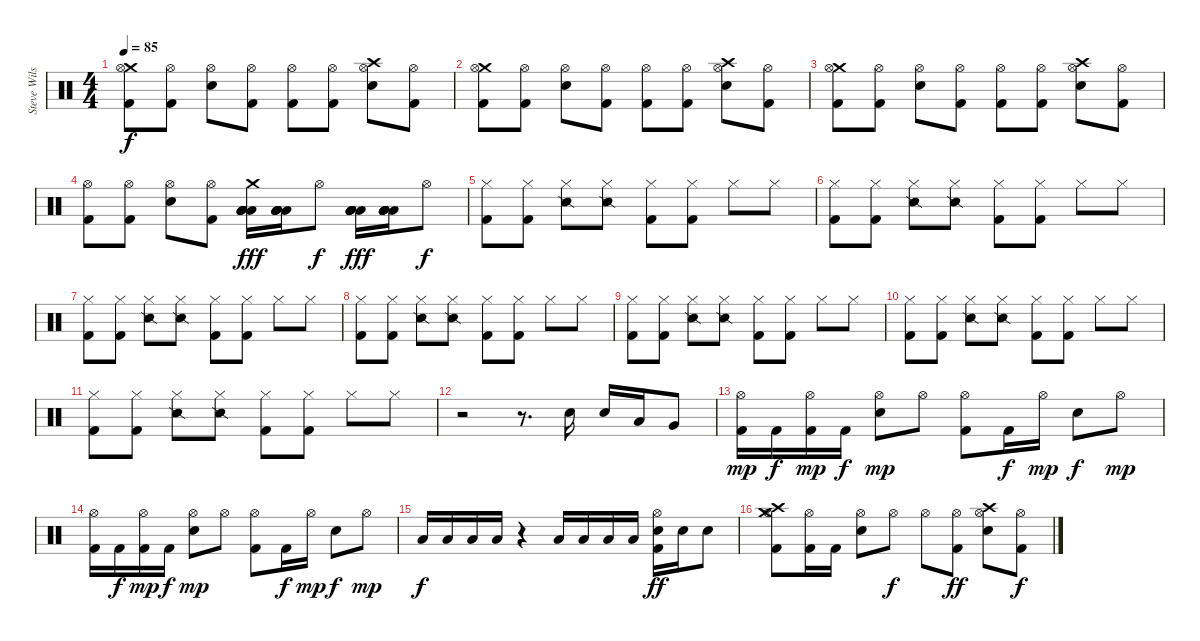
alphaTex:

\track ("Steve Wilson" "Steve Wils") {instrument percussion}
\staff {score}
\articulation defaults
\ts (4 4)
\tempo 85
\clef neutral
\ks c
("Crash medium (hit)" "Hi-Hat (open)" "Kick (hit) 2").8{dy f} ("Hi-Hat (open)" "Kick (hit) 2").8 ("Hi-Hat (open)" "Snare (hit) 2").8 ("Hi-Hat (open)" "Kick (hit) 2").8 ("Hi-Hat (open)" "Kick (hit) 2").8 ("Hi-Hat (open)" "Kick (hit) 2").8 ("Crash high (hit)" "Hi-Hat (open)" "Snare (hit) 2").8 ("Hi-Hat (open)" "Kick (hit) 2").8 |
("Crash medium (hit)" "Hi-Hat (open)" "Kick (hit) 2").8 ("Hi-Hat (open)" "Kick (hit) 2").8 ("Hi-Hat (open)" "Snare (hit) 2").8 ("Hi-Hat (open)" "Kick (hit) 2").8 ("Hi-Hat (open)" "Kick (hit) 2").8 ("Hi-Hat (open)" "Kick (hit) 2").8 ("Crash high (hit)" "Hi-Hat (open)" "Snare (hit) 2").8 ("Hi-Hat (open)" "Kick (hit) 2").8 |
("Crash medium (hit)" "Hi-Hat (open)" "Kick (hit) 2").8 ("Hi-Hat (open)" "Kick (hit) 2").8 ("Hi-Hat (open)" "Snare (hit) 2").8 ("Hi-Hat (open)" "Kick (hit) 2").8 ("Hi-Hat (open)" "Kick (hit) 2").8 ("Hi-Hat (open)" "Kick (hit) 2").8 ("Crash high (hit)" "Hi-Hat (open)" "Snare (hit) 2").8 ("Hi-Hat (open)" "Kick (hit) 2").8 |
("Hi-Hat (open)" "Kick (hit) 2").8 ("Hi-Hat (open)" "Kick (hit) 2").8 ("Hi-Hat (open)" "Snare (hit) 2").8 ("Hi-Hat (open)" "Kick (hit) 2").8 ("Crash medium (hit)" "Low Tom (hit)" "Low Tom (hit)" "Low Tom (hit)" "Low Tom (hit)" "Low Tom (hit)").16{dy fff} ("Low Tom (hit)" "Low Tom (hit)" "Low Tom (hit)" "Low Tom (hit)" "Low Tom (hit)").16 "Hi-Hat (open)".8{dy f} ("Low Tom (hit)" "Low Tom (hit)" "Low Tom (hit)" "Low Tom (hit)" "Low Tom (hit)").16{dy fff} ("Low Tom (hit)" "Low Tom (hit)" "Low Tom (hit)" "Low Tom (hit)" "Low Tom (hit)").16 "Hi-Hat (open)".8{dy f} |
("Hi-Hat (closed)" "Kick (hit) 2").8 ("Hi-Hat (closed)" "Kick (hit) 2").8 ("Hi-Hat (closed)" "Snare (side stick) 2").8 ("Hi-Hat (closed)" "Snare (side stick) 2").8 ("Hi-Hat (closed)" "Kick (hit) 2").8 ("Hi-Hat (closed)" "Kick (hit) 2").8 "Hi-Hat (closed)".8 "Hi-Hat (closed)".8 |
("Hi-Hat (closed)" "Kick (hit) 2").8 ("Hi-Hat (closed)" "Kick (hit) 2").8 ("Hi-Hat (closed)" "Snare (side stick) 2").8 ("Hi-Hat (closed)" "Snare (side stick) 2").8 ("Hi-Hat (closed)" "Kick (hit) 2").8 ("Hi-Hat (closed)" "Kick (hit) 2").8 "Hi-Hat (closed)".8 "Hi-Hat (closed)".8 |
("Hi-Hat (closed)" "Kick (hit) 2").8 ("Hi-Hat (closed)" "Kick (hit) 2").8 ("Hi-Hat (closed)" "Snare (side stick) 2").8 ("Hi-Hat (closed)" "Snare (side stick) 2").8 ("Hi-Hat (closed)" "Kick (hit) 2").8 ("Hi-Hat (closed)" "Kick (hit) 2").8 "Hi-Hat (closed)".8 "Hi-Hat (closed)".8 |
("Hi-Hat (closed)" "Kick (hit) 2").8 ("Hi-Hat (closed)" "Kick (hit) 2").8 ("Hi-Hat (closed)" "Snare (side stick) 2").8 ("Hi-Hat (closed)" "Snare (side stick) 2").8 ("Hi-Hat (closed)" "Kick (hit) 2").8 ("Hi-Hat (closed)" "Kick (hit) 2").8 "Hi-Hat (closed)".8 "Hi-Hat (closed)".8 |
("Hi-Hat (closed)" "Kick (hit) 2").8 ("Hi-Hat (closed)" "Kick (hit) 2").8 ("Hi-Hat (closed)" "Snare (side stick) 2").8 ("Hi-Hat (closed)" "Snare (side stick) 2").8 ("Hi-Hat (closed)" "Kick (hit) 2").8 ("Hi-Hat (closed)" "Kick (hit) 2").8 "Hi-Hat (closed)".8 "Hi-Hat (closed)".8 |
("Hi-Hat (closed)" "Kick (hit) 2").8 ("Hi-Hat (closed)" "Kick (hit) 2").8 ("Hi-Hat (closed)" "Snare (side stick) 2").8 ("Hi-Hat (closed)" "Snare (side stick) 2").8 ("Hi-Hat (closed)" "Kick (hit) 2").8 ("Hi-Hat (closed)" "Kick (hit) 2").8 "Hi-Hat (closed)".8 "Hi-Hat (closed)".8 |
("Hi-Hat (closed)" "Kick (hit) 2").8 ("Hi-Hat (closed)" "Kick (hit) 2").8 ("Hi-Hat (closed)" "Snare (side stick) 2").8 ("Hi-Hat (closed)" "Snare (side stick) 2").8 ("Hi-Hat (closed)" "Kick (hit) 2").8 ("Hi-Hat (closed)" "Kick (hit) 2").8 "Hi-Hat (closed)".8 "Hi-Hat (closed)".8 |
r.2 r.8{d} "Snare (hit) 2".16 "Snare (hit) 2".16 "Low Tom (hit)".16 "Very Low Tom (hit)".8 |
("Hi-Hat (open)" "Kick (hit) 2").16{dy mp} "Kick (hit) 2".16{dy f} ("Hi-Hat (open)" "Kick (hit) 2").16{dy mp} "Kick (hit) 2".16{dy f} ("Hi-Hat (open)" "Snare (hit) 2").8{dy mp} "Hi-Hat (open)".8 ("Hi-Hat (open)" "Kick (hit) 2").8 "Kick (hit) 2".16{dy f} "Hi-Hat (open)".16{dy mp} "Snare (hit) 2".8{dy f} "Hi-Hat (open)".8{dy mp} |
("Hi-Hat (open)" "Kick (hit) 2").16 "Kick (hit) 2".16{dy f} ("Hi-Hat (open)" "Kick (hit) 2").16{dy mp} "Kick (hit) 2".16{dy f} ("Hi-Hat (open)" "Snare (hit) 2").8{dy mp} "Hi-Hat (open)".8 ("Hi-Hat (open)" "Kick (hit) 2").8 "Kick (hit) 2".16{dy f} "Hi-Hat (open)".16{dy mp} "Snare (hit) 2".8{dy f} "Hi-Hat (open)".8{dy mp} |
"Low Tom (hit)".16{dy f} "Low Tom (hit)".16 "Low Tom (hit)".16 "Low Tom (hit)".16 r.4 "Low Tom (hit)".16 "Low Tom (hit)".16 "Low Tom (hit)".16 "Low Tom (hit)".16 ("Hi-Hat (open)" "Kick (hit) 2" "Snare (hit) 2").16{dy ff} "Snare (hit) 2".16 "Snare (hit) 2".8 |
("Crash high (hit)" "Crash medium (hit)" "Hi-Hat (open)" "Kick (hit) 2").8 ("Hi-Hat (open)" "Kick (hit) 2").16 "Kick (hit) 2".16 ("Hi-Hat (open)" "Snare (hit) 2").8 "Hi-Hat (open)".8{dy f} "Hi-Hat (open)".8 ("Hi-Hat (open)" "Kick (hit) 2").8{dy ff} ("Crash high (hit)" "Hi-Hat (open)" "Snare (hit) 2").8 ("Hi-Hat (open)" "Kick (hit) 2").8{dy f}
